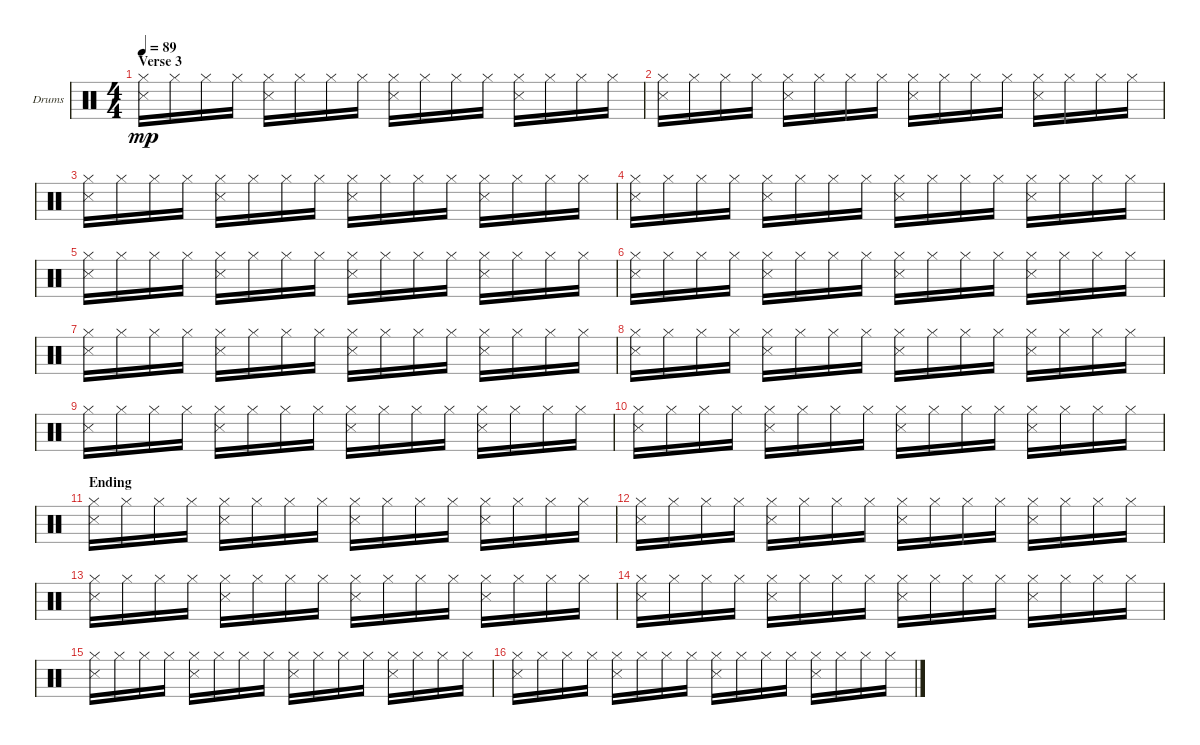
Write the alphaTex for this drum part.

\bracketExtendMode groupsimilarinstruments
\firstSystemTrackNameOrientation horizontal
\otherSystemsTrackNameOrientation horizontal
\track ("Drumkit" "Drums") {instrument percussion}
\staff {score}
\articulation defaults
\ts (4 4)
\section ("" "Verse 3")
\tempo 89
\clef neutral
\ks c
("Hi-Hat (closed)" "Snare (side stick) 3").16{dy mp} "Hi-Hat (closed)".16 "Hi-Hat (closed)".16 "Hi-Hat (closed)".16 ("Hi-Hat (closed)" "Snare (side stick) 3").16 "Hi-Hat (closed)".16 "Hi-Hat (closed)".16 "Hi-Hat (closed)".16 ("Hi-Hat (closed)" "Snare (side stick) 3").16 "Hi-Hat (closed)".16 "Hi-Hat (closed)".16 "Hi-Hat (closed)".16 ("Hi-Hat (closed)" "Snare (side stick) 3").16 "Hi-Hat (closed)".16 "Hi-Hat (closed)".16 "Hi-Hat (closed)".16 |
("Hi-Hat (closed)" "Snare (side stick) 3").16 "Hi-Hat (closed)".16 "Hi-Hat (closed)".16 "Hi-Hat (closed)".16 ("Hi-Hat (closed)" "Snare (side stick) 3").16 "Hi-Hat (closed)".16 "Hi-Hat (closed)".16 "Hi-Hat (closed)".16 ("Hi-Hat (closed)" "Snare (side stick) 3").16 "Hi-Hat (closed)".16 "Hi-Hat (closed)".16 "Hi-Hat (closed)".16 ("Hi-Hat (closed)" "Snare (side stick) 3").16 "Hi-Hat (closed)".16 "Hi-Hat (closed)".16 "Hi-Hat (closed)".16 |
("Hi-Hat (closed)" "Snare (side stick) 3").16 "Hi-Hat (closed)".16 "Hi-Hat (closed)".16 "Hi-Hat (closed)".16 ("Hi-Hat (closed)" "Snare (side stick) 3").16 "Hi-Hat (closed)".16 "Hi-Hat (closed)".16 "Hi-Hat (closed)".16 ("Hi-Hat (closed)" "Snare (side stick) 3").16 "Hi-Hat (closed)".16 "Hi-Hat (closed)".16 "Hi-Hat (closed)".16 ("Hi-Hat (closed)" "Snare (side stick) 3").16 "Hi-Hat (closed)".16 "Hi-Hat (closed)".16 "Hi-Hat (closed)".16 |
("Hi-Hat (closed)" "Snare (side stick) 3").16 "Hi-Hat (closed)".16 "Hi-Hat (closed)".16 "Hi-Hat (closed)".16 ("Hi-Hat (closed)" "Snare (side stick) 3").16 "Hi-Hat (closed)".16 "Hi-Hat (closed)".16 "Hi-Hat (closed)".16 ("Hi-Hat (closed)" "Snare (side stick) 3").16 "Hi-Hat (closed)".16 "Hi-Hat (closed)".16 "Hi-Hat (closed)".16 ("Hi-Hat (closed)" "Snare (side stick) 3").16 "Hi-Hat (closed)".16 "Hi-Hat (closed)".16 "Hi-Hat (closed)".16 |
("Hi-Hat (closed)" "Snare (side stick) 3").16 "Hi-Hat (closed)".16 "Hi-Hat (closed)".16 "Hi-Hat (closed)".16 ("Hi-Hat (closed)" "Snare (side stick) 3").16 "Hi-Hat (closed)".16 "Hi-Hat (closed)".16 "Hi-Hat (closed)".16 ("Hi-Hat (closed)" "Snare (side stick) 3").16 "Hi-Hat (closed)".16 "Hi-Hat (closed)".16 "Hi-Hat (closed)".16 ("Hi-Hat (closed)" "Snare (side stick) 3").16 "Hi-Hat (closed)".16 "Hi-Hat (closed)".16 "Hi-Hat (closed)".16 |
("Hi-Hat (closed)" "Snare (side stick) 3").16 "Hi-Hat (closed)".16 "Hi-Hat (closed)".16 "Hi-Hat (closed)".16 ("Hi-Hat (closed)" "Snare (side stick) 3").16 "Hi-Hat (closed)".16 "Hi-Hat (closed)".16 "Hi-Hat (closed)".16 ("Hi-Hat (closed)" "Snare (side stick) 3").16 "Hi-Hat (closed)".16 "Hi-Hat (closed)".16 "Hi-Hat (closed)".16 ("Hi-Hat (closed)" "Snare (side stick) 3").16 "Hi-Hat (closed)".16 "Hi-Hat (closed)".16 "Hi-Hat (closed)".16 |
("Hi-Hat (closed)" "Snare (side stick) 3").16 "Hi-Hat (closed)".16 "Hi-Hat (closed)".16 "Hi-Hat (closed)".16 ("Hi-Hat (closed)" "Snare (side stick) 3").16 "Hi-Hat (closed)".16 "Hi-Hat (closed)".16 "Hi-Hat (closed)".16 ("Hi-Hat (closed)" "Snare (side stick) 3").16 "Hi-Hat (closed)".16 "Hi-Hat (closed)".16 "Hi-Hat (closed)".16 ("Hi-Hat (closed)" "Snare (side stick) 3").16 "Hi-Hat (closed)".16 "Hi-Hat (closed)".16 "Hi-Hat (closed)".16 |
("Hi-Hat (closed)" "Snare (side stick) 3").16 "Hi-Hat (closed)".16 "Hi-Hat (closed)".16 "Hi-Hat (closed)".16 ("Hi-Hat (closed)" "Snare (side stick) 3").16 "Hi-Hat (closed)".16 "Hi-Hat (closed)".16 "Hi-Hat (closed)".16 ("Hi-Hat (closed)" "Snare (side stick) 3").16 "Hi-Hat (closed)".16 "Hi-Hat (closed)".16 "Hi-Hat (closed)".16 ("Hi-Hat (closed)" "Snare (side stick) 3").16 "Hi-Hat (closed)".16 "Hi-Hat (closed)".16 "Hi-Hat (closed)".16 |
("Hi-Hat (closed)" "Snare (side stick) 3").16 "Hi-Hat (closed)".16 "Hi-Hat (closed)".16 "Hi-Hat (closed)".16 ("Hi-Hat (closed)" "Snare (side stick) 3").16 "Hi-Hat (closed)".16 "Hi-Hat (closed)".16 "Hi-Hat (closed)".16 ("Hi-Hat (closed)" "Snare (side stick) 3").16 "Hi-Hat (closed)".16 "Hi-Hat (closed)".16 "Hi-Hat (closed)".16 ("Hi-Hat (closed)" "Snare (side stick) 3").16 "Hi-Hat (closed)".16 "Hi-Hat (closed)".16 "Hi-Hat (closed)".16 |
("Hi-Hat (closed)" "Snare (side stick) 3").16 "Hi-Hat (closed)".16 "Hi-Hat (closed)".16 "Hi-Hat (closed)".16 ("Hi-Hat (closed)" "Snare (side stick) 3").16 "Hi-Hat (closed)".16 "Hi-Hat (closed)".16 "Hi-Hat (closed)".16 ("Hi-Hat (closed)" "Snare (side stick) 3").16 "Hi-Hat (closed)".16 "Hi-Hat (closed)".16 "Hi-Hat (closed)".16 ("Hi-Hat (closed)" "Snare (side stick) 3").16 "Hi-Hat (closed)".16 "Hi-Hat (closed)".16 "Hi-Hat (closed)".16 |
\section ("" "Ending")
("Hi-Hat (closed)" "Snare (side stick) 3").16 "Hi-Hat (closed)".16 "Hi-Hat (closed)".16 "Hi-Hat (closed)".16 ("Hi-Hat (closed)" "Snare (side stick) 3").16 "Hi-Hat (closed)".16 "Hi-Hat (closed)".16 "Hi-Hat (closed)".16 ("Hi-Hat (closed)" "Snare (side stick) 3").16 "Hi-Hat (closed)".16 "Hi-Hat (closed)".16 "Hi-Hat (closed)".16 ("Hi-Hat (closed)" "Snare (side stick) 3").16 "Hi-Hat (closed)".16 "Hi-Hat (closed)".16 "Hi-Hat (closed)".16 |
("Hi-Hat (closed)" "Snare (side stick) 3").16 "Hi-Hat (closed)".16 "Hi-Hat (closed)".16 "Hi-Hat (closed)".16 ("Hi-Hat (closed)" "Snare (side stick) 3").16 "Hi-Hat (closed)".16 "Hi-Hat (closed)".16 "Hi-Hat (closed)".16 ("Hi-Hat (closed)" "Snare (side stick) 3").16 "Hi-Hat (closed)".16 "Hi-Hat (closed)".16 "Hi-Hat (closed)".16 ("Hi-Hat (closed)" "Snare (side stick) 3").16 "Hi-Hat (closed)".16 "Hi-Hat (closed)".16 "Hi-Hat (closed)".16 |
("Hi-Hat (closed)" "Snare (side stick) 3").16 "Hi-Hat (closed)".16 "Hi-Hat (closed)".16 "Hi-Hat (closed)".16 ("Hi-Hat (closed)" "Snare (side stick) 3").16 "Hi-Hat (closed)".16 "Hi-Hat (closed)".16 "Hi-Hat (closed)".16 ("Hi-Hat (closed)" "Snare (side stick) 3").16 "Hi-Hat (closed)".16 "Hi-Hat (closed)".16 "Hi-Hat (closed)".16 ("Hi-Hat (closed)" "Snare (side stick) 3").16 "Hi-Hat (closed)".16 "Hi-Hat (closed)".16 "Hi-Hat (closed)".16 |
("Hi-Hat (closed)" "Snare (side stick) 3").16 "Hi-Hat (closed)".16 "Hi-Hat (closed)".16 "Hi-Hat (closed)".16 ("Hi-Hat (closed)" "Snare (side stick) 3").16 "Hi-Hat (closed)".16 "Hi-Hat (closed)".16 "Hi-Hat (closed)".16 ("Hi-Hat (closed)" "Snare (side stick) 3").16 "Hi-Hat (closed)".16 "Hi-Hat (closed)".16 "Hi-Hat (closed)".16 ("Hi-Hat (closed)" "Snare (side stick) 3").16 "Hi-Hat (closed)".16 "Hi-Hat (closed)".16 "Hi-Hat (closed)".16 |
("Hi-Hat (closed)" "Snare (side stick) 3").16 "Hi-Hat (closed)".16 "Hi-Hat (closed)".16 "Hi-Hat (closed)".16 ("Hi-Hat (closed)" "Snare (side stick) 3").16 "Hi-Hat (closed)".16 "Hi-Hat (closed)".16 "Hi-Hat (closed)".16 ("Hi-Hat (closed)" "Snare (side stick) 3").16 "Hi-Hat (closed)".16 "Hi-Hat (closed)".16 "Hi-Hat (closed)".16 ("Hi-Hat (closed)" "Snare (side stick) 3").16 "Hi-Hat (closed)".16 "Hi-Hat (closed)".16 "Hi-Hat (closed)".16 |
("Hi-Hat (closed)" "Snare (side stick) 3").16 "Hi-Hat (closed)".16 "Hi-Hat (closed)".16 "Hi-Hat (closed)".16 ("Hi-Hat (closed)" "Snare (side stick) 3").16 "Hi-Hat (closed)".16 "Hi-Hat (closed)".16 "Hi-Hat (closed)".16 ("Hi-Hat (closed)" "Snare (side stick) 3").16 "Hi-Hat (closed)".16 "Hi-Hat (closed)".16 "Hi-Hat (closed)".16 ("Hi-Hat (closed)" "Snare (side stick) 3").16 "Hi-Hat (closed)".16 "Hi-Hat (closed)".16 "Hi-Hat (closed)".16
